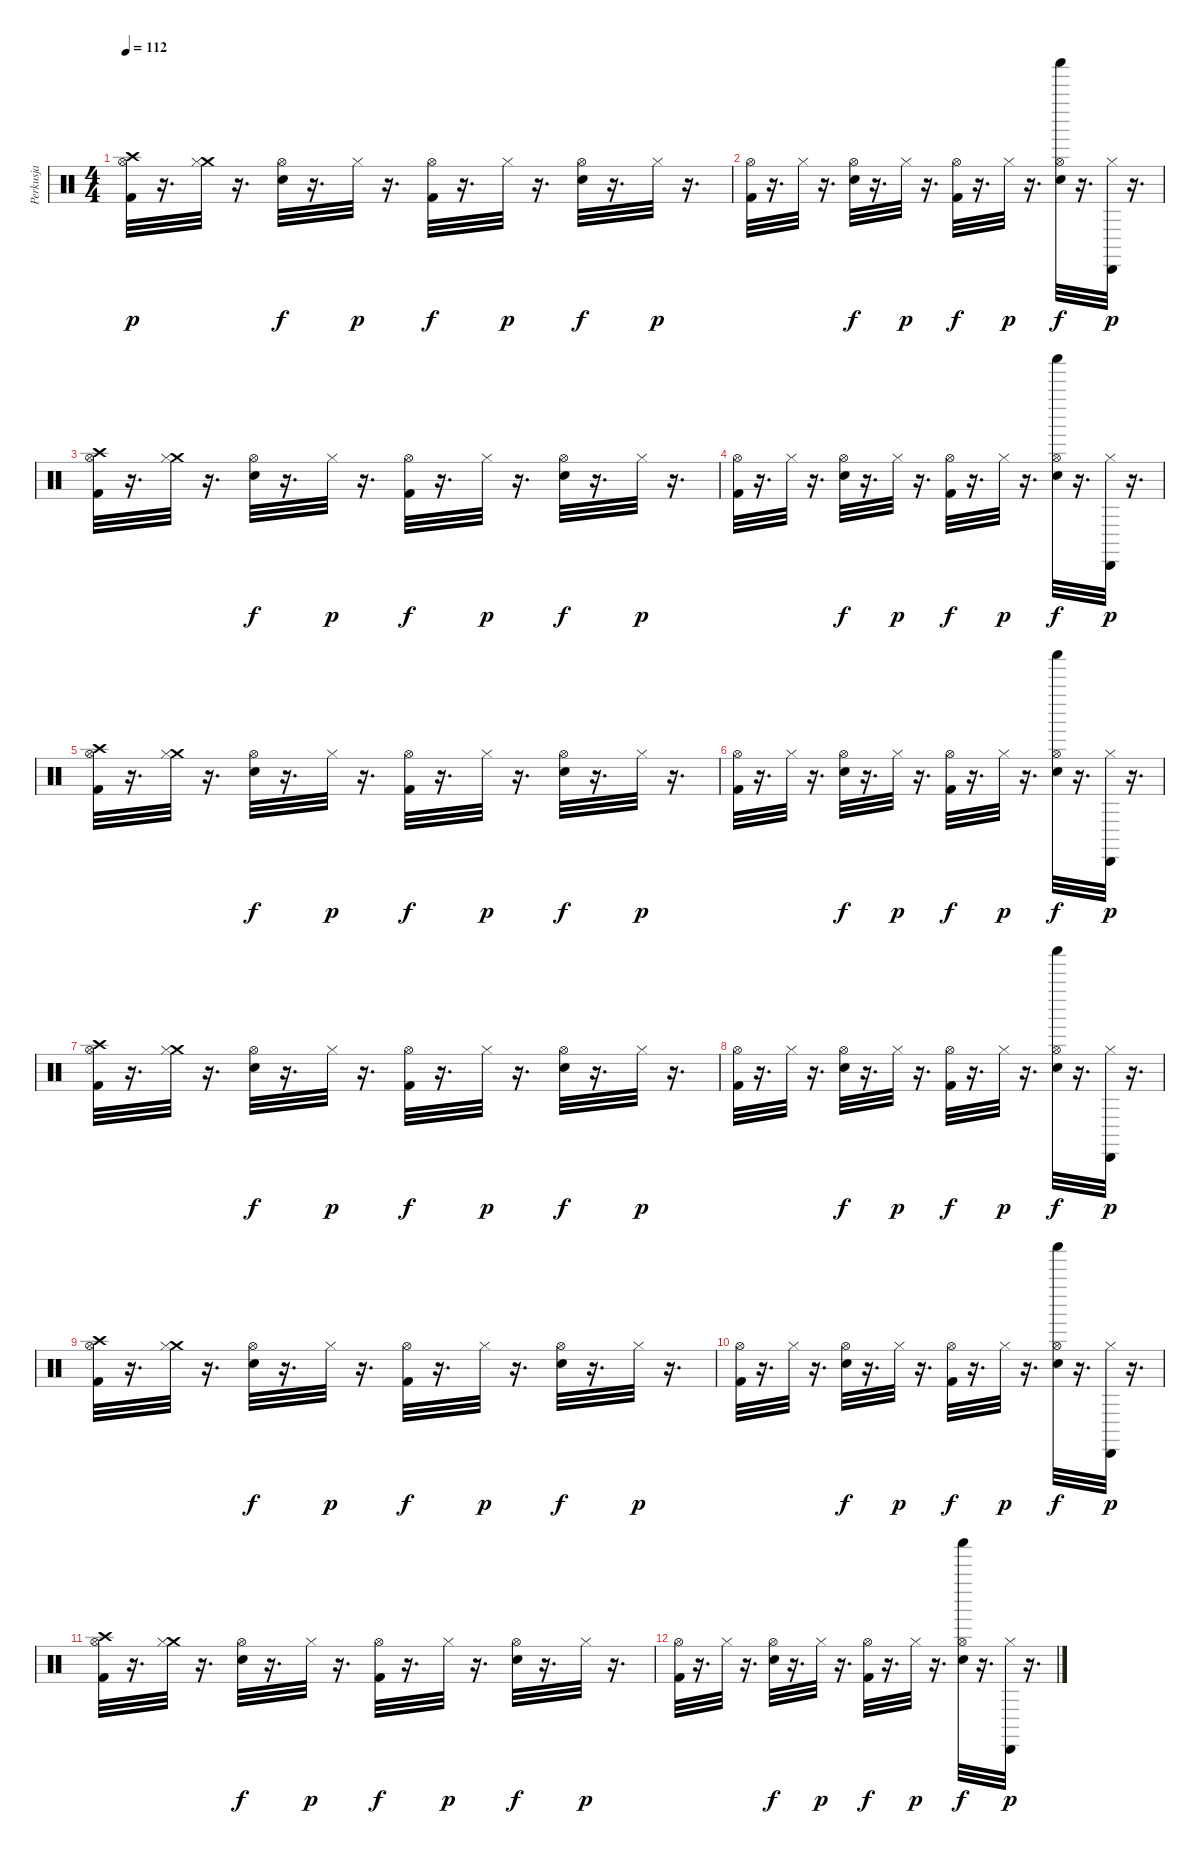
\track ("Perkusja" "Perkusja") {instrument percussion}
\staff {score}
\articulation defaults
\ts (4 4)
\tempo 112
\clef neutral
\ks c
("Crash high (hit)" "Hi-Hat (open)" "Kick (hit) 2").32{dy p} r.16{d} ("Crash medium (hit)" "Hi-Hat (closed)").32 r.16{d} ("Hi-Hat (open)" "Snare (hit) 2").32{dy f} r.16{d} "Hi-Hat (closed)".32{dy p} r.16{d} ("Hi-Hat (open)" "Kick (hit) 2").32{dy f} r.16{d} "Hi-Hat (closed)".32{dy p} r.16{d} ("Hi-Hat (open)" "Snare (hit) 2").32{dy f} r.16{d} "Hi-Hat (closed)".32{dy p} r.16{d} |
("Hi-Hat (open)" "Kick (hit) 2").32 r.16{d} "Hi-Hat (closed)".32 r.16{d} ("Hi-Hat (open)" "Snare (hit) 2").32{dy f} r.16{d} "Hi-Hat (closed)".32{dy p} r.16{d} ("Hi-Hat (open)" "Kick (hit) 2").32{dy f} r.16{d} "Hi-Hat (closed)".32{dy p} r.16{d} ("Shaker (hit)" "Hi-Hat (open)" "Snare (hit) 2").32{dy f} r.16{d} ("Hi-Hat (closed)" "Cabasa (hit)").32{dy p} r.16{d} |
("Crash high (hit)" "Hi-Hat (open)" "Kick (hit) 2").32 r.16{d} ("Crash medium (hit)" "Hi-Hat (closed)").32 r.16{d} ("Hi-Hat (open)" "Snare (hit) 2").32{dy f} r.16{d} "Hi-Hat (closed)".32{dy p} r.16{d} ("Hi-Hat (open)" "Kick (hit) 2").32{dy f} r.16{d} "Hi-Hat (closed)".32{dy p} r.16{d} ("Hi-Hat (open)" "Snare (hit) 2").32{dy f} r.16{d} "Hi-Hat (closed)".32{dy p} r.16{d} |
("Hi-Hat (open)" "Kick (hit) 2").32 r.16{d} "Hi-Hat (closed)".32 r.16{d} ("Hi-Hat (open)" "Snare (hit) 2").32{dy f} r.16{d} "Hi-Hat (closed)".32{dy p} r.16{d} ("Hi-Hat (open)" "Kick (hit) 2").32{dy f} r.16{d} "Hi-Hat (closed)".32{dy p} r.16{d} ("Shaker (hit)" "Hi-Hat (open)" "Snare (hit) 2").32{dy f} r.16{d} ("Hi-Hat (closed)" "Cabasa (hit)").32{dy p} r.16{d} |
("Crash high (hit)" "Hi-Hat (open)" "Kick (hit) 2").32 r.16{d} ("Crash medium (hit)" "Hi-Hat (closed)").32 r.16{d} ("Hi-Hat (open)" "Snare (hit) 2").32{dy f} r.16{d} "Hi-Hat (closed)".32{dy p} r.16{d} ("Hi-Hat (open)" "Kick (hit) 2").32{dy f} r.16{d} "Hi-Hat (closed)".32{dy p} r.16{d} ("Hi-Hat (open)" "Snare (hit) 2").32{dy f} r.16{d} "Hi-Hat (closed)".32{dy p} r.16{d} |
("Hi-Hat (open)" "Kick (hit) 2").32 r.16{d} "Hi-Hat (closed)".32 r.16{d} ("Hi-Hat (open)" "Snare (hit) 2").32{dy f} r.16{d} "Hi-Hat (closed)".32{dy p} r.16{d} ("Hi-Hat (open)" "Kick (hit) 2").32{dy f} r.16{d} "Hi-Hat (closed)".32{dy p} r.16{d} ("Shaker (hit)" "Hi-Hat (open)" "Snare (hit) 2").32{dy f} r.16{d} ("Hi-Hat (closed)" "Cabasa (hit)").32{dy p} r.16{d} |
("Crash high (hit)" "Hi-Hat (open)" "Kick (hit) 2").32 r.16{d} ("Crash medium (hit)" "Hi-Hat (closed)").32 r.16{d} ("Hi-Hat (open)" "Snare (hit) 2").32{dy f} r.16{d} "Hi-Hat (closed)".32{dy p} r.16{d} ("Hi-Hat (open)" "Kick (hit) 2").32{dy f} r.16{d} "Hi-Hat (closed)".32{dy p} r.16{d} ("Hi-Hat (open)" "Snare (hit) 2").32{dy f} r.16{d} "Hi-Hat (closed)".32{dy p} r.16{d} |
("Hi-Hat (open)" "Kick (hit) 2").32 r.16{d} "Hi-Hat (closed)".32 r.16{d} ("Hi-Hat (open)" "Snare (hit) 2").32{dy f} r.16{d} "Hi-Hat (closed)".32{dy p} r.16{d} ("Hi-Hat (open)" "Kick (hit) 2").32{dy f} r.16{d} "Hi-Hat (closed)".32{dy p} r.16{d} ("Shaker (hit)" "Hi-Hat (open)" "Snare (hit) 2").32{dy f} r.16{d} ("Hi-Hat (closed)" "Cabasa (hit)").32{dy p} r.16{d} |
("Crash high (hit)" "Hi-Hat (open)" "Kick (hit) 2").32 r.16{d} ("Crash medium (hit)" "Hi-Hat (closed)").32 r.16{d} ("Hi-Hat (open)" "Snare (hit) 2").32{dy f} r.16{d} "Hi-Hat (closed)".32{dy p} r.16{d} ("Hi-Hat (open)" "Kick (hit) 2").32{dy f} r.16{d} "Hi-Hat (closed)".32{dy p} r.16{d} ("Hi-Hat (open)" "Snare (hit) 2").32{dy f} r.16{d} "Hi-Hat (closed)".32{dy p} r.16{d} |
("Hi-Hat (open)" "Kick (hit) 2").32 r.16{d} "Hi-Hat (closed)".32 r.16{d} ("Hi-Hat (open)" "Snare (hit) 2").32{dy f} r.16{d} "Hi-Hat (closed)".32{dy p} r.16{d} ("Hi-Hat (open)" "Kick (hit) 2").32{dy f} r.16{d} "Hi-Hat (closed)".32{dy p} r.16{d} ("Shaker (hit)" "Hi-Hat (open)" "Snare (hit) 2").32{dy f} r.16{d} ("Hi-Hat (closed)" "Cabasa (hit)").32{dy p} r.16{d} |
("Crash high (hit)" "Hi-Hat (open)" "Kick (hit) 2").32 r.16{d} ("Crash medium (hit)" "Hi-Hat (closed)").32 r.16{d} ("Hi-Hat (open)" "Snare (hit) 2").32{dy f} r.16{d} "Hi-Hat (closed)".32{dy p} r.16{d} ("Hi-Hat (open)" "Kick (hit) 2").32{dy f} r.16{d} "Hi-Hat (closed)".32{dy p} r.16{d} ("Hi-Hat (open)" "Snare (hit) 2").32{dy f} r.16{d} "Hi-Hat (closed)".32{dy p} r.16{d} |
("Hi-Hat (open)" "Kick (hit) 2").32 r.16{d} "Hi-Hat (closed)".32 r.16{d} ("Hi-Hat (open)" "Snare (hit) 2").32{dy f} r.16{d} "Hi-Hat (closed)".32{dy p} r.16{d} ("Hi-Hat (open)" "Kick (hit) 2").32{dy f} r.16{d} "Hi-Hat (closed)".32{dy p} r.16{d} ("Shaker (hit)" "Hi-Hat (open)" "Snare (hit) 2").32{dy f} r.16{d} ("Hi-Hat (closed)" "Cabasa (hit)").32{dy p} r.16{d}
